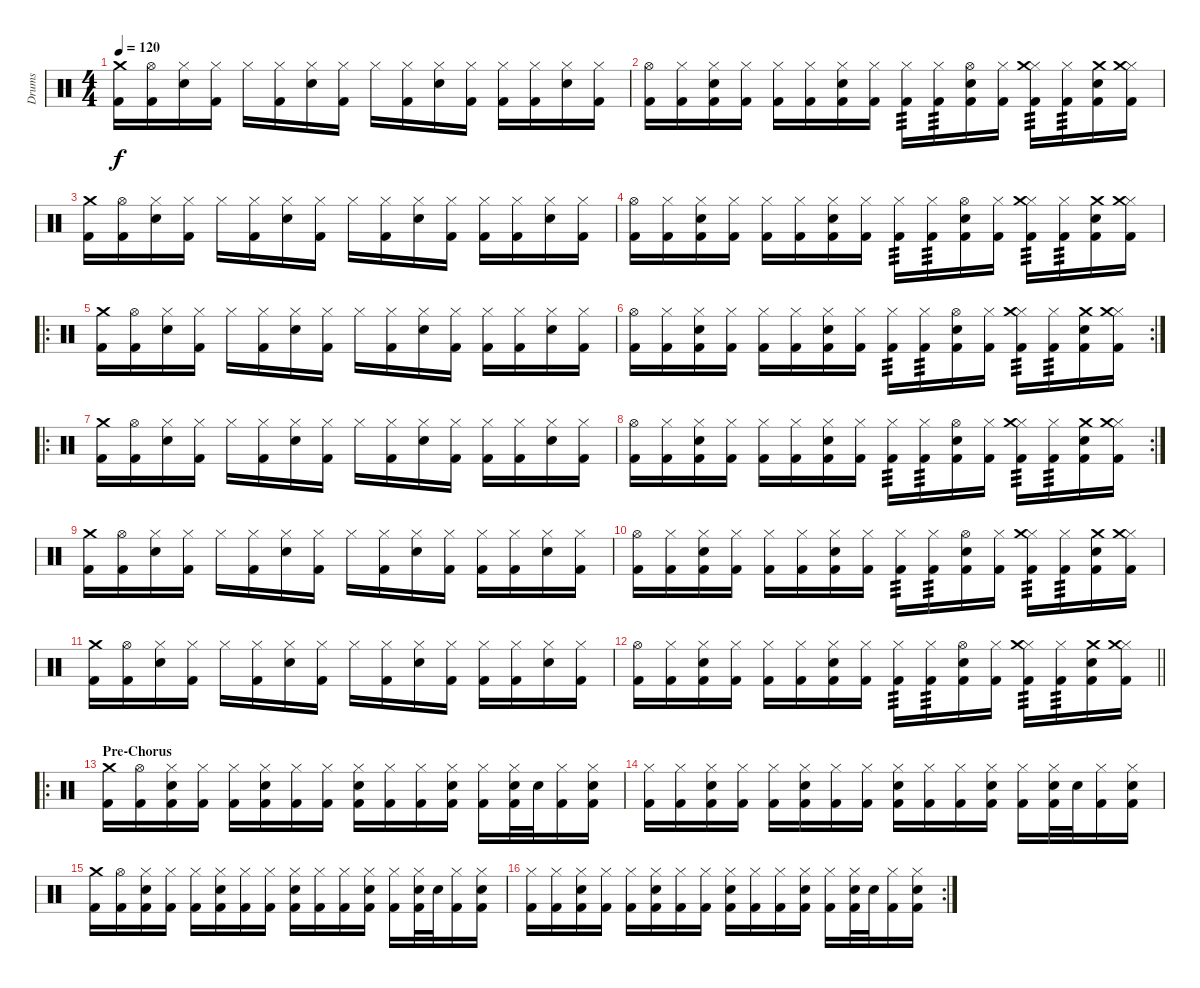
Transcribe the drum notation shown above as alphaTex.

\track ("Drums" "Drums") {instrument percussion}
\staff {score}
\articulation defaults
\ts (4 4)
\tempo 120
\clef neutral
\ks c
("Kick (hit) 2" "Crash medium (hit)").16{dy f} ("Kick (hit) 2" "Hi-Hat (open)").16 ("Snare (hit) 2" "Hi-Hat (closed)").16 ("Kick (hit) 2" "Hi-Hat (closed)").16 "Hi-Hat (closed)".16 ("Kick (hit) 2" "Hi-Hat (closed)").16 ("Snare (hit) 2" "Hi-Hat (closed)").16 ("Kick (hit) 2" "Hi-Hat (closed)").16 "Hi-Hat (closed)".16 ("Kick (hit) 2" "Hi-Hat (closed)").16 ("Snare (hit) 2" "Hi-Hat (closed)").16 ("Kick (hit) 2" "Hi-Hat (closed)").16 ("Kick (hit) 2" "Hi-Hat (closed)").16 ("Kick (hit) 2" "Hi-Hat (closed)").16 ("Snare (hit) 2" "Hi-Hat (closed)").16 ("Kick (hit) 2" "Hi-Hat (closed)").16 |
("Kick (hit) 2" "Hi-Hat (open)").16 ("Kick (hit) 2" "Hi-Hat (closed)").16 ("Kick (hit) 2" "Snare (hit) 2" "Hi-Hat (closed)").16 ("Kick (hit) 2" "Hi-Hat (closed)").16 ("Kick (hit) 2" "Hi-Hat (closed)").16 ("Kick (hit) 2" "Hi-Hat (closed)").16 ("Kick (hit) 2" "Snare (hit) 2" "Hi-Hat (closed)").16 ("Kick (hit) 2" "Hi-Hat (closed)").16 ("Kick (hit) 2" "Hi-Hat (closed)").16{tp 3} ("Kick (hit) 2" "Hi-Hat (closed)").16{tp 3} ("Kick (hit) 2" "Snare (hit) 2" "Hi-Hat (open)").16 ("Kick (hit) 2" "Hi-Hat (closed)").16 ("Kick (hit) 2" "Hi-Hat (closed)" "Crash medium (hit)").16{tp 3} ("Kick (hit) 2" "Hi-Hat (closed)").16{tp 3} ("Kick (hit) 2" "Snare (hit) 2" "Crash medium (hit)").16 ("Kick (hit) 2" "Hi-Hat (closed)" "Crash medium (hit)").16 |
("Kick (hit) 2" "Crash medium (hit)").16 ("Kick (hit) 2" "Hi-Hat (open)").16 ("Snare (hit) 2" "Hi-Hat (closed)").16 ("Kick (hit) 2" "Hi-Hat (closed)").16 "Hi-Hat (closed)".16 ("Kick (hit) 2" "Hi-Hat (closed)").16 ("Snare (hit) 2" "Hi-Hat (closed)").16 ("Kick (hit) 2" "Hi-Hat (closed)").16 "Hi-Hat (closed)".16 ("Kick (hit) 2" "Hi-Hat (closed)").16 ("Snare (hit) 2" "Hi-Hat (closed)").16 ("Kick (hit) 2" "Hi-Hat (closed)").16 ("Kick (hit) 2" "Hi-Hat (closed)").16 ("Kick (hit) 2" "Hi-Hat (closed)").16 ("Snare (hit) 2" "Hi-Hat (closed)").16 ("Kick (hit) 2" "Hi-Hat (closed)").16 |
("Kick (hit) 2" "Hi-Hat (open)").16 ("Kick (hit) 2" "Hi-Hat (closed)").16 ("Kick (hit) 2" "Snare (hit) 2" "Hi-Hat (closed)").16 ("Kick (hit) 2" "Hi-Hat (closed)").16 ("Kick (hit) 2" "Hi-Hat (closed)").16 ("Kick (hit) 2" "Hi-Hat (closed)").16 ("Kick (hit) 2" "Snare (hit) 2" "Hi-Hat (closed)").16 ("Kick (hit) 2" "Hi-Hat (closed)").16 ("Kick (hit) 2" "Hi-Hat (closed)").16{tp 3} ("Kick (hit) 2" "Hi-Hat (closed)").16{tp 3} ("Kick (hit) 2" "Snare (hit) 2" "Hi-Hat (open)").16 ("Kick (hit) 2" "Hi-Hat (closed)").16 ("Kick (hit) 2" "Hi-Hat (closed)" "Crash medium (hit)").16{tp 3} ("Kick (hit) 2" "Hi-Hat (closed)").16{tp 3} ("Kick (hit) 2" "Snare (hit) 2" "Crash medium (hit)").16 ("Kick (hit) 2" "Hi-Hat (closed)" "Crash medium (hit)").16 |
\ro
("Kick (hit) 2" "Crash medium (hit)").16 ("Kick (hit) 2" "Hi-Hat (open)").16 ("Snare (hit) 2" "Hi-Hat (closed)").16 ("Kick (hit) 2" "Hi-Hat (closed)").16 "Hi-Hat (closed)".16 ("Kick (hit) 2" "Hi-Hat (closed)").16 ("Snare (hit) 2" "Hi-Hat (closed)").16 ("Kick (hit) 2" "Hi-Hat (closed)").16 "Hi-Hat (closed)".16 ("Kick (hit) 2" "Hi-Hat (closed)").16 ("Snare (hit) 2" "Hi-Hat (closed)").16 ("Kick (hit) 2" "Hi-Hat (closed)").16 ("Kick (hit) 2" "Hi-Hat (closed)").16 ("Kick (hit) 2" "Hi-Hat (closed)").16 ("Snare (hit) 2" "Hi-Hat (closed)").16 ("Kick (hit) 2" "Hi-Hat (closed)").16 |
\rc 2
("Kick (hit) 2" "Hi-Hat (open)").16 ("Kick (hit) 2" "Hi-Hat (closed)").16 ("Kick (hit) 2" "Snare (hit) 2" "Hi-Hat (closed)").16 ("Kick (hit) 2" "Hi-Hat (closed)").16 ("Kick (hit) 2" "Hi-Hat (closed)").16 ("Kick (hit) 2" "Hi-Hat (closed)").16 ("Kick (hit) 2" "Snare (hit) 2" "Hi-Hat (closed)").16 ("Kick (hit) 2" "Hi-Hat (closed)").16 ("Kick (hit) 2" "Hi-Hat (closed)").16{tp 3} ("Kick (hit) 2" "Hi-Hat (closed)").16{tp 3} ("Kick (hit) 2" "Snare (hit) 2" "Hi-Hat (open)").16 ("Kick (hit) 2" "Hi-Hat (closed)").16 ("Kick (hit) 2" "Hi-Hat (closed)" "Crash medium (hit)").16{tp 3} ("Kick (hit) 2" "Hi-Hat (closed)").16{tp 3} ("Kick (hit) 2" "Snare (hit) 2" "Crash medium (hit)").16 ("Kick (hit) 2" "Hi-Hat (closed)" "Crash medium (hit)").16 |
\ro
("Kick (hit) 2" "Crash medium (hit)").16 ("Kick (hit) 2" "Hi-Hat (open)").16 ("Snare (hit) 2" "Hi-Hat (closed)").16 ("Kick (hit) 2" "Hi-Hat (closed)").16 "Hi-Hat (closed)".16 ("Kick (hit) 2" "Hi-Hat (closed)").16 ("Snare (hit) 2" "Hi-Hat (closed)").16 ("Kick (hit) 2" "Hi-Hat (closed)").16 "Hi-Hat (closed)".16 ("Kick (hit) 2" "Hi-Hat (closed)").16 ("Snare (hit) 2" "Hi-Hat (closed)").16 ("Kick (hit) 2" "Hi-Hat (closed)").16 ("Kick (hit) 2" "Hi-Hat (closed)").16 ("Kick (hit) 2" "Hi-Hat (closed)").16 ("Snare (hit) 2" "Hi-Hat (closed)").16 ("Kick (hit) 2" "Hi-Hat (closed)").16 |
\rc 2
("Kick (hit) 2" "Hi-Hat (open)").16 ("Kick (hit) 2" "Hi-Hat (closed)").16 ("Kick (hit) 2" "Snare (hit) 2" "Hi-Hat (closed)").16 ("Kick (hit) 2" "Hi-Hat (closed)").16 ("Kick (hit) 2" "Hi-Hat (closed)").16 ("Kick (hit) 2" "Hi-Hat (closed)").16 ("Kick (hit) 2" "Snare (hit) 2" "Hi-Hat (closed)").16 ("Kick (hit) 2" "Hi-Hat (closed)").16 ("Kick (hit) 2" "Hi-Hat (closed)").16{tp 3} ("Kick (hit) 2" "Hi-Hat (closed)").16{tp 3} ("Kick (hit) 2" "Snare (hit) 2" "Hi-Hat (open)").16 ("Kick (hit) 2" "Hi-Hat (closed)").16 ("Kick (hit) 2" "Hi-Hat (closed)" "Crash medium (hit)").16{tp 3} ("Kick (hit) 2" "Hi-Hat (closed)").16{tp 3} ("Kick (hit) 2" "Snare (hit) 2" "Crash medium (hit)").16 ("Kick (hit) 2" "Hi-Hat (closed)" "Crash medium (hit)").16 |
("Kick (hit) 2" "Crash medium (hit)").16 ("Kick (hit) 2" "Hi-Hat (open)").16 ("Snare (hit) 2" "Hi-Hat (closed)").16 ("Kick (hit) 2" "Hi-Hat (closed)").16 "Hi-Hat (closed)".16 ("Kick (hit) 2" "Hi-Hat (closed)").16 ("Snare (hit) 2" "Hi-Hat (closed)").16 ("Kick (hit) 2" "Hi-Hat (closed)").16 "Hi-Hat (closed)".16 ("Kick (hit) 2" "Hi-Hat (closed)").16 ("Snare (hit) 2" "Hi-Hat (closed)").16 ("Kick (hit) 2" "Hi-Hat (closed)").16 ("Kick (hit) 2" "Hi-Hat (closed)").16 ("Kick (hit) 2" "Hi-Hat (closed)").16 ("Snare (hit) 2" "Hi-Hat (closed)").16 ("Kick (hit) 2" "Hi-Hat (closed)").16 |
("Kick (hit) 2" "Hi-Hat (open)").16 ("Kick (hit) 2" "Hi-Hat (closed)").16 ("Kick (hit) 2" "Snare (hit) 2" "Hi-Hat (closed)").16 ("Kick (hit) 2" "Hi-Hat (closed)").16 ("Kick (hit) 2" "Hi-Hat (closed)").16 ("Kick (hit) 2" "Hi-Hat (closed)").16 ("Kick (hit) 2" "Snare (hit) 2" "Hi-Hat (closed)").16 ("Kick (hit) 2" "Hi-Hat (closed)").16 ("Kick (hit) 2" "Hi-Hat (closed)").16{tp 3} ("Kick (hit) 2" "Hi-Hat (closed)").16{tp 3} ("Kick (hit) 2" "Snare (hit) 2" "Hi-Hat (open)").16 ("Kick (hit) 2" "Hi-Hat (closed)").16 ("Kick (hit) 2" "Hi-Hat (closed)" "Crash medium (hit)").16{tp 3} ("Kick (hit) 2" "Hi-Hat (closed)").16{tp 3} ("Kick (hit) 2" "Snare (hit) 2" "Crash medium (hit)").16 ("Kick (hit) 2" "Hi-Hat (closed)" "Crash medium (hit)").16 |
("Kick (hit) 2" "Crash medium (hit)").16 ("Kick (hit) 2" "Hi-Hat (open)").16 ("Snare (hit) 2" "Hi-Hat (closed)").16 ("Kick (hit) 2" "Hi-Hat (closed)").16 "Hi-Hat (closed)".16 ("Kick (hit) 2" "Hi-Hat (closed)").16 ("Snare (hit) 2" "Hi-Hat (closed)").16 ("Kick (hit) 2" "Hi-Hat (closed)").16 "Hi-Hat (closed)".16 ("Kick (hit) 2" "Hi-Hat (closed)").16 ("Snare (hit) 2" "Hi-Hat (closed)").16 ("Kick (hit) 2" "Hi-Hat (closed)").16 ("Kick (hit) 2" "Hi-Hat (closed)").16 ("Kick (hit) 2" "Hi-Hat (closed)").16 ("Snare (hit) 2" "Hi-Hat (closed)").16 ("Kick (hit) 2" "Hi-Hat (closed)").16 |
\barLineRight lightlight
("Kick (hit) 2" "Hi-Hat (open)").16 ("Kick (hit) 2" "Hi-Hat (closed)").16 ("Kick (hit) 2" "Snare (hit) 2" "Hi-Hat (closed)").16 ("Kick (hit) 2" "Hi-Hat (closed)").16 ("Kick (hit) 2" "Hi-Hat (closed)").16 ("Kick (hit) 2" "Hi-Hat (closed)").16 ("Kick (hit) 2" "Snare (hit) 2" "Hi-Hat (closed)").16 ("Kick (hit) 2" "Hi-Hat (closed)").16 ("Kick (hit) 2" "Hi-Hat (closed)").16{tp 3} ("Kick (hit) 2" "Hi-Hat (closed)").16{tp 3} ("Kick (hit) 2" "Snare (hit) 2" "Hi-Hat (open)").16 ("Kick (hit) 2" "Hi-Hat (closed)").16 ("Kick (hit) 2" "Hi-Hat (closed)" "Crash medium (hit)").16{tp 3} ("Kick (hit) 2" "Hi-Hat (closed)").16{tp 3} ("Kick (hit) 2" "Snare (hit) 2" "Crash medium (hit)").16 ("Kick (hit) 2" "Hi-Hat (closed)" "Crash medium (hit)").16 |
\ro
\section ("" "Pre-Chorus")
("Kick (hit) 2" "Crash medium (hit)").16 ("Kick (hit) 2" "Hi-Hat (open)").16 ("Kick (hit) 2" "Snare (hit) 2" "Hi-Hat (closed)").16 ("Kick (hit) 2" "Hi-Hat (closed)").16 ("Kick (hit) 2" "Hi-Hat (closed)").16 ("Kick (hit) 2" "Snare (hit) 2" "Hi-Hat (closed)").16 ("Kick (hit) 2" "Hi-Hat (closed)").16 ("Kick (hit) 2" "Hi-Hat (closed)").16 ("Kick (hit) 2" "Snare (hit) 2" "Hi-Hat (closed)").16 ("Kick (hit) 2" "Hi-Hat (closed)").16 ("Kick (hit) 2" "Hi-Hat (closed)").16 ("Kick (hit) 2" "Snare (hit) 2" "Hi-Hat (closed)").16 ("Kick (hit) 2" "Hi-Hat (closed)").16 ("Kick (hit) 2" "Snare (hit) 2" "Hi-Hat (closed)").32 "Snare (hit) 2".32 ("Kick (hit) 2" "Hi-Hat (closed)").16 ("Kick (hit) 2" "Snare (hit) 2" "Hi-Hat (closed)").16 |
("Kick (hit) 2" "Hi-Hat (closed)").16 ("Kick (hit) 2" "Hi-Hat (closed)").16 ("Kick (hit) 2" "Snare (hit) 2" "Hi-Hat (closed)").16 ("Kick (hit) 2" "Hi-Hat (closed)").16 ("Kick (hit) 2" "Hi-Hat (closed)").16 ("Kick (hit) 2" "Snare (hit) 2" "Hi-Hat (closed)").16 ("Kick (hit) 2" "Hi-Hat (closed)").16 ("Kick (hit) 2" "Hi-Hat (closed)").16 ("Kick (hit) 2" "Snare (hit) 2" "Hi-Hat (closed)").16 ("Kick (hit) 2" "Hi-Hat (closed)").16 ("Kick (hit) 2" "Hi-Hat (closed)").16 ("Kick (hit) 2" "Snare (hit) 2" "Hi-Hat (closed)").16 ("Kick (hit) 2" "Hi-Hat (closed)").16 ("Kick (hit) 2" "Snare (hit) 2" "Hi-Hat (closed)").32 "Snare (hit) 2".32 ("Kick (hit) 2" "Hi-Hat (closed)").16 ("Kick (hit) 2" "Snare (hit) 2" "Hi-Hat (closed)").16 |
("Kick (hit) 2" "Crash medium (hit)").16 ("Kick (hit) 2" "Hi-Hat (open)").16 ("Kick (hit) 2" "Snare (hit) 2" "Hi-Hat (closed)").16 ("Kick (hit) 2" "Hi-Hat (closed)").16 ("Kick (hit) 2" "Hi-Hat (closed)").16 ("Kick (hit) 2" "Snare (hit) 2" "Hi-Hat (closed)").16 ("Kick (hit) 2" "Hi-Hat (closed)").16 ("Kick (hit) 2" "Hi-Hat (closed)").16 ("Kick (hit) 2" "Snare (hit) 2" "Hi-Hat (closed)").16 ("Kick (hit) 2" "Hi-Hat (closed)").16 ("Kick (hit) 2" "Hi-Hat (closed)").16 ("Kick (hit) 2" "Snare (hit) 2" "Hi-Hat (closed)").16 ("Kick (hit) 2" "Hi-Hat (closed)").16 ("Kick (hit) 2" "Snare (hit) 2" "Hi-Hat (closed)").32 "Snare (hit) 2".32 ("Kick (hit) 2" "Hi-Hat (closed)").16 ("Kick (hit) 2" "Snare (hit) 2" "Hi-Hat (closed)").16 |
\rc 2
("Kick (hit) 2" "Hi-Hat (closed)").16 ("Kick (hit) 2" "Hi-Hat (closed)").16 ("Kick (hit) 2" "Snare (hit) 2" "Hi-Hat (closed)").16 ("Kick (hit) 2" "Hi-Hat (closed)").16 ("Kick (hit) 2" "Hi-Hat (closed)").16 ("Kick (hit) 2" "Snare (hit) 2" "Hi-Hat (closed)").16 ("Kick (hit) 2" "Hi-Hat (closed)").16 ("Kick (hit) 2" "Hi-Hat (closed)").16 ("Kick (hit) 2" "Snare (hit) 2" "Hi-Hat (closed)").16 ("Kick (hit) 2" "Hi-Hat (closed)").16 ("Kick (hit) 2" "Hi-Hat (closed)").16 ("Kick (hit) 2" "Snare (hit) 2" "Hi-Hat (closed)").16 ("Kick (hit) 2" "Hi-Hat (closed)").16 ("Kick (hit) 2" "Snare (hit) 2" "Hi-Hat (closed)").32 "Snare (hit) 2".32 ("Kick (hit) 2" "Hi-Hat (closed)").16 ("Kick (hit) 2" "Snare (hit) 2" "Hi-Hat (closed)").16
